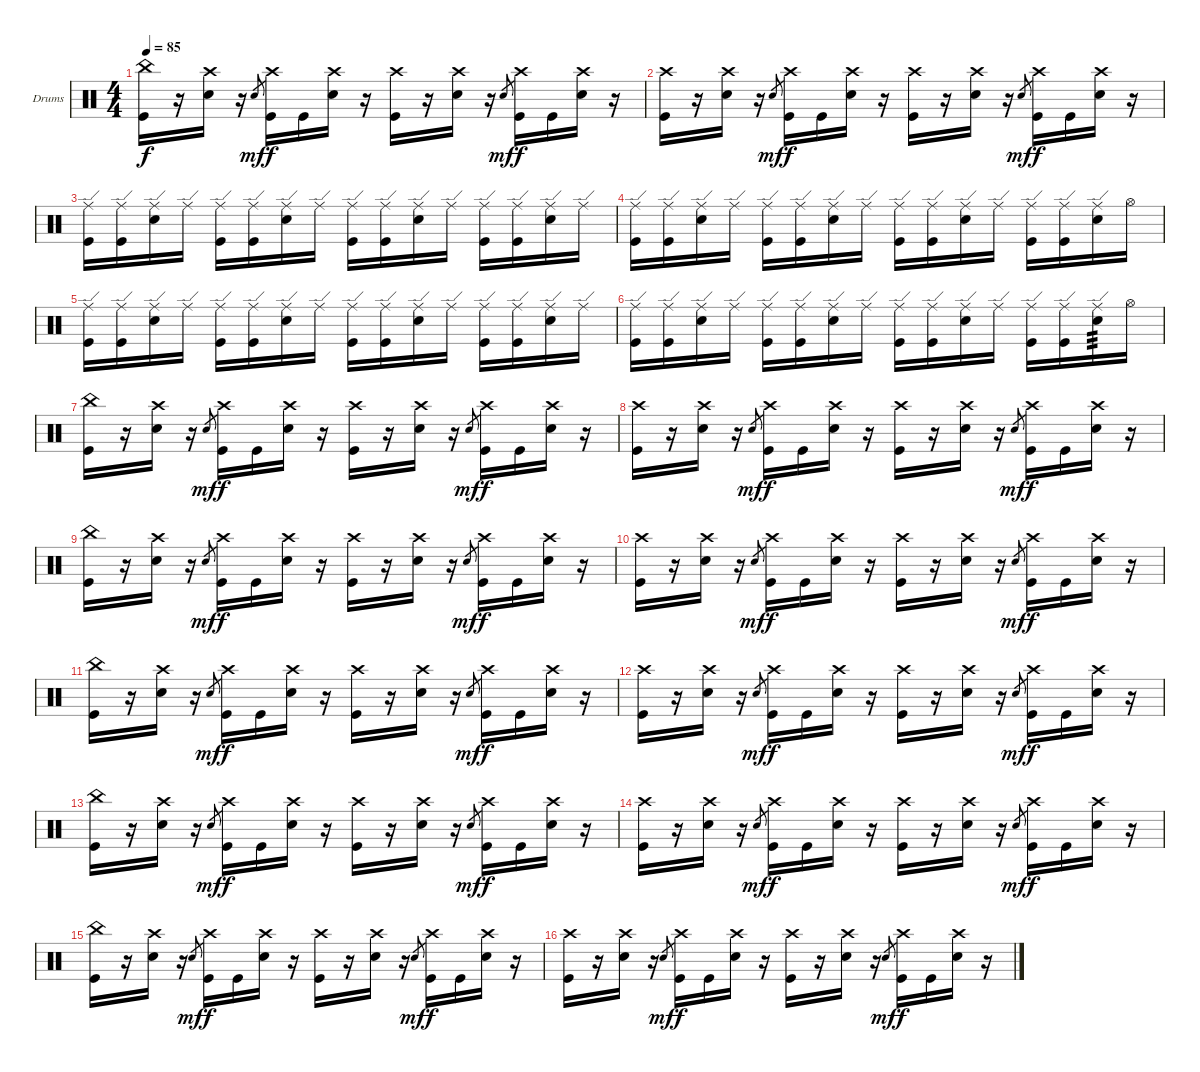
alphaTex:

\defaultSystemsLayout 4
\bracketExtendMode groupsimilarinstruments
\firstSystemTrackNameOrientation horizontal
\otherSystemsTrackNameOrientation horizontal
\track ("Drumkit" "Drums") {instrument percussion}
\staff {score}
\articulation defaults
\ts (4 4)
\tempo 85
\clef neutral
\scale
0.333333
\ks c
("China (hit)" "Kick (hit)").16{dy f} r.16 ("Crash high (hit)" "Snare (hit) 2").16 r.16 "Snare (hit) 2".8{gr dy mf} ("Crash high (hit)" "Kick (hit)").16{dy f} "Kick (hit)".16 ("Crash high (hit)" "Snare (hit) 2").16 r.16 ("Crash high (hit)" "Kick (hit)").16 r.16 ("Crash high (hit)" "Snare (hit) 2").16 r.16 "Snare (hit) 2".8{gr dy mf} ("Crash high (hit)" "Kick (hit)").16{dy f} "Kick (hit)".16 ("Crash high (hit)" "Snare (hit) 2").16 r.16 |
\scale
0.333333 ("Crash high (hit)" "Kick (hit)").16 r.16 ("Crash high (hit)" "Snare (hit) 2").16 r.16 "Snare (hit) 2".8{gr dy mf} ("Crash high (hit)" "Kick (hit)").16{dy f} "Kick (hit)".16 ("Crash high (hit)" "Snare (hit) 2").16 r.16 ("Crash high (hit)" "Kick (hit)").16 r.16 ("Crash high (hit)" "Snare (hit) 2").16 r.16 "Snare (hit) 2".8{gr dy mf} ("Crash high (hit)" "Kick (hit)").16{dy f} "Kick (hit)".16 ("Crash high (hit)" "Snare (hit) 2").16 r.16 |
\scale
0.333333 ("Ride (edge)" "Kick (hit)").16 ("Ride (edge)" "Kick (hit)").16 ("Ride (edge)" "Snare (hit) 2").16 "Ride (edge)".16 ("Ride (edge)" "Kick (hit)").16 ("Ride (edge)" "Kick (hit)").16 ("Ride (edge)" "Snare (hit) 2").16 "Ride (edge)".16 ("Ride (edge)" "Kick (hit)").16 ("Ride (edge)" "Kick (hit)").16 ("Ride (edge)" "Snare (hit) 2").16 "Ride (edge)".16 ("Ride (edge)" "Kick (hit)").16 ("Ride (edge)" "Kick (hit)").16 ("Ride (edge)" "Snare (hit) 2").16 "Ride (edge)".16 |
\scale
0.333333 ("Ride (edge)" "Kick (hit)").16 ("Ride (edge)" "Kick (hit)").16 ("Ride (edge)" "Snare (hit) 2").16 "Ride (edge)".16 ("Ride (edge)" "Kick (hit)").16 ("Ride (edge)" "Kick (hit)").16 ("Ride (edge)" "Snare (hit) 2").16 "Ride (edge)".16 ("Ride (edge)" "Kick (hit)").16 ("Ride (edge)" "Kick (hit)").16 ("Ride (edge)" "Snare (hit) 2").16 "Ride (edge)".16 ("Ride (edge)" "Kick (hit)").16 ("Ride (edge)" "Kick (hit)").16 ("Ride (edge)" "Snare (hit) 2").16 "Hi-Hat (open)".16 |
\scale
0.333333 ("Ride (edge)" "Kick (hit)").16 ("Ride (edge)" "Kick (hit)").16 ("Ride (edge)" "Snare (hit) 2").16 "Ride (edge)".16 ("Ride (edge)" "Kick (hit)").16 ("Ride (edge)" "Kick (hit)").16 ("Ride (edge)" "Snare (hit) 2").16 "Ride (edge)".16 ("Ride (edge)" "Kick (hit)").16 ("Ride (edge)" "Kick (hit)").16 ("Ride (edge)" "Snare (hit) 2").16 "Ride (edge)".16 ("Ride (edge)" "Kick (hit)").16 ("Ride (edge)" "Kick (hit)").16 ("Ride (edge)" "Snare (hit) 2").16 "Ride (edge)".16 |
\scale
0.333333 ("Ride (edge)" "Kick (hit)").16 ("Ride (edge)" "Kick (hit)").16 ("Ride (edge)" "Snare (hit) 2").16 "Ride (edge)".16 ("Ride (edge)" "Kick (hit)").16 ("Ride (edge)" "Kick (hit)").16 ("Ride (edge)" "Snare (hit) 2").16 "Ride (edge)".16 ("Ride (edge)" "Kick (hit)").16 ("Ride (edge)" "Kick (hit)").16 ("Ride (edge)" "Snare (hit) 2").16 "Ride (edge)".16 ("Ride (edge)" "Kick (hit)").16 ("Ride (edge)" "Kick (hit)").16 ("Ride (edge)" "Snare (hit) 2").16{tp 3} "Hi-Hat (open)".16 |
\scale
0.333333 ("China (hit)" "Kick (hit)").16 r.16 ("Crash high (hit)" "Snare (hit) 2").16 r.16 "Snare (hit) 2".8{gr dy mf} ("Crash high (hit)" "Kick (hit)").16{dy f} "Kick (hit)".16 ("Crash high (hit)" "Snare (hit) 2").16 r.16 ("Crash high (hit)" "Kick (hit)").16 r.16 ("Crash high (hit)" "Snare (hit) 2").16 r.16 "Snare (hit) 2".8{gr dy mf} ("Crash high (hit)" "Kick (hit)").16{dy f} "Kick (hit)".16 ("Crash high (hit)" "Snare (hit) 2").16 r.16 |
\scale
0.333333 ("Crash high (hit)" "Kick (hit)").16 r.16 ("Crash high (hit)" "Snare (hit) 2").16 r.16 "Snare (hit) 2".8{gr dy mf} ("Crash high (hit)" "Kick (hit)").16{dy f} "Kick (hit)".16 ("Crash high (hit)" "Snare (hit) 2").16 r.16 ("Crash high (hit)" "Kick (hit)").16 r.16 ("Crash high (hit)" "Snare (hit) 2").16 r.16 "Snare (hit) 2".8{gr dy mf} ("Crash high (hit)" "Kick (hit)").16{dy f} "Kick (hit)".16 ("Crash high (hit)" "Snare (hit) 2").16 r.16 |
\scale
0.333333 ("China (hit)" "Kick (hit)").16 r.16 ("Crash high (hit)" "Snare (hit) 2").16 r.16 "Snare (hit) 2".8{gr dy mf} ("Crash high (hit)" "Kick (hit)").16{dy f} "Kick (hit)".16 ("Crash high (hit)" "Snare (hit) 2").16 r.16 ("Crash high (hit)" "Kick (hit)").16 r.16 ("Crash high (hit)" "Snare (hit) 2").16 r.16 "Snare (hit) 2".8{gr dy mf} ("Crash high (hit)" "Kick (hit)").16{dy f} "Kick (hit)".16 ("Crash high (hit)" "Snare (hit) 2").16 r.16 |
\scale
0.333333 ("Crash high (hit)" "Kick (hit)").16 r.16 ("Crash high (hit)" "Snare (hit) 2").16 r.16 "Snare (hit) 2".8{gr dy mf} ("Crash high (hit)" "Kick (hit)").16{dy f} "Kick (hit)".16 ("Crash high (hit)" "Snare (hit) 2").16 r.16 ("Crash high (hit)" "Kick (hit)").16 r.16 ("Crash high (hit)" "Snare (hit) 2").16 r.16 "Snare (hit) 2".8{gr dy mf} ("Crash high (hit)" "Kick (hit)").16{dy f} "Kick (hit)".16 ("Crash high (hit)" "Snare (hit) 2").16 r.16 |
\scale
0.333333 ("China (hit)" "Kick (hit)").16 r.16 ("Crash high (hit)" "Snare (hit) 2").16 r.16 "Snare (hit) 2".8{gr dy mf} ("Crash high (hit)" "Kick (hit)").16{dy f} "Kick (hit)".16 ("Crash high (hit)" "Snare (hit) 2").16 r.16 ("Crash high (hit)" "Kick (hit)").16 r.16 ("Crash high (hit)" "Snare (hit) 2").16 r.16 "Snare (hit) 2".8{gr dy mf} ("Crash high (hit)" "Kick (hit)").16{dy f} "Kick (hit)".16 ("Crash high (hit)" "Snare (hit) 2").16 r.16 |
\scale
0.333333 ("Crash high (hit)" "Kick (hit)").16 r.16 ("Crash high (hit)" "Snare (hit) 2").16 r.16 "Snare (hit) 2".8{gr dy mf} ("Crash high (hit)" "Kick (hit)").16{dy f} "Kick (hit)".16 ("Crash high (hit)" "Snare (hit) 2").16 r.16 ("Crash high (hit)" "Kick (hit)").16 r.16 ("Crash high (hit)" "Snare (hit) 2").16 r.16 "Snare (hit) 2".8{gr dy mf} ("Crash high (hit)" "Kick (hit)").16{dy f} "Kick (hit)".16 ("Crash high (hit)" "Snare (hit) 2").16 r.16 |
\scale
0.333333 ("China (hit)" "Kick (hit)").16 r.16 ("Crash high (hit)" "Snare (hit) 2").16 r.16 "Snare (hit) 2".8{gr dy mf} ("Crash high (hit)" "Kick (hit)").16{dy f} "Kick (hit)".16 ("Crash high (hit)" "Snare (hit) 2").16 r.16 ("Crash high (hit)" "Kick (hit)").16 r.16 ("Crash high (hit)" "Snare (hit) 2").16 r.16 "Snare (hit) 2".8{gr dy mf} ("Crash high (hit)" "Kick (hit)").16{dy f} "Kick (hit)".16 ("Crash high (hit)" "Snare (hit) 2").16 r.16 |
\scale
0.333333 ("Crash high (hit)" "Kick (hit)").16 r.16 ("Crash high (hit)" "Snare (hit) 2").16 r.16 "Snare (hit) 2".8{gr dy mf} ("Crash high (hit)" "Kick (hit)").16{dy f} "Kick (hit)".16 ("Crash high (hit)" "Snare (hit) 2").16 r.16 ("Crash high (hit)" "Kick (hit)").16 r.16 ("Crash high (hit)" "Snare (hit) 2").16 r.16 "Snare (hit) 2".8{gr dy mf} ("Crash high (hit)" "Kick (hit)").16{dy f} "Kick (hit)".16 ("Crash high (hit)" "Snare (hit) 2").16 r.16 |
\scale
0.333333 ("China (hit)" "Kick (hit)").16 r.16 ("Crash high (hit)" "Snare (hit) 2").16 r.16 "Snare (hit) 2".8{gr dy mf} ("Crash high (hit)" "Kick (hit)").16{dy f} "Kick (hit)".16 ("Crash high (hit)" "Snare (hit) 2").16 r.16 ("Crash high (hit)" "Kick (hit)").16 r.16 ("Crash high (hit)" "Snare (hit) 2").16 r.16 "Snare (hit) 2".8{gr dy mf} ("Crash high (hit)" "Kick (hit)").16{dy f} "Kick (hit)".16 ("Crash high (hit)" "Snare (hit) 2").16 r.16 |
\scale
0.333333 ("Crash high (hit)" "Kick (hit)").16 r.16 ("Crash high (hit)" "Snare (hit) 2").16 r.16 "Snare (hit) 2".8{gr dy mf} ("Crash high (hit)" "Kick (hit)").16{dy f} "Kick (hit)".16 ("Crash high (hit)" "Snare (hit) 2").16 r.16 ("Crash high (hit)" "Kick (hit)").16 r.16 ("Crash high (hit)" "Snare (hit) 2").16 r.16 "Snare (hit) 2".8{gr dy mf} ("Crash high (hit)" "Kick (hit)").16{dy f} "Kick (hit)".16 ("Crash high (hit)" "Snare (hit) 2").16 r.16
